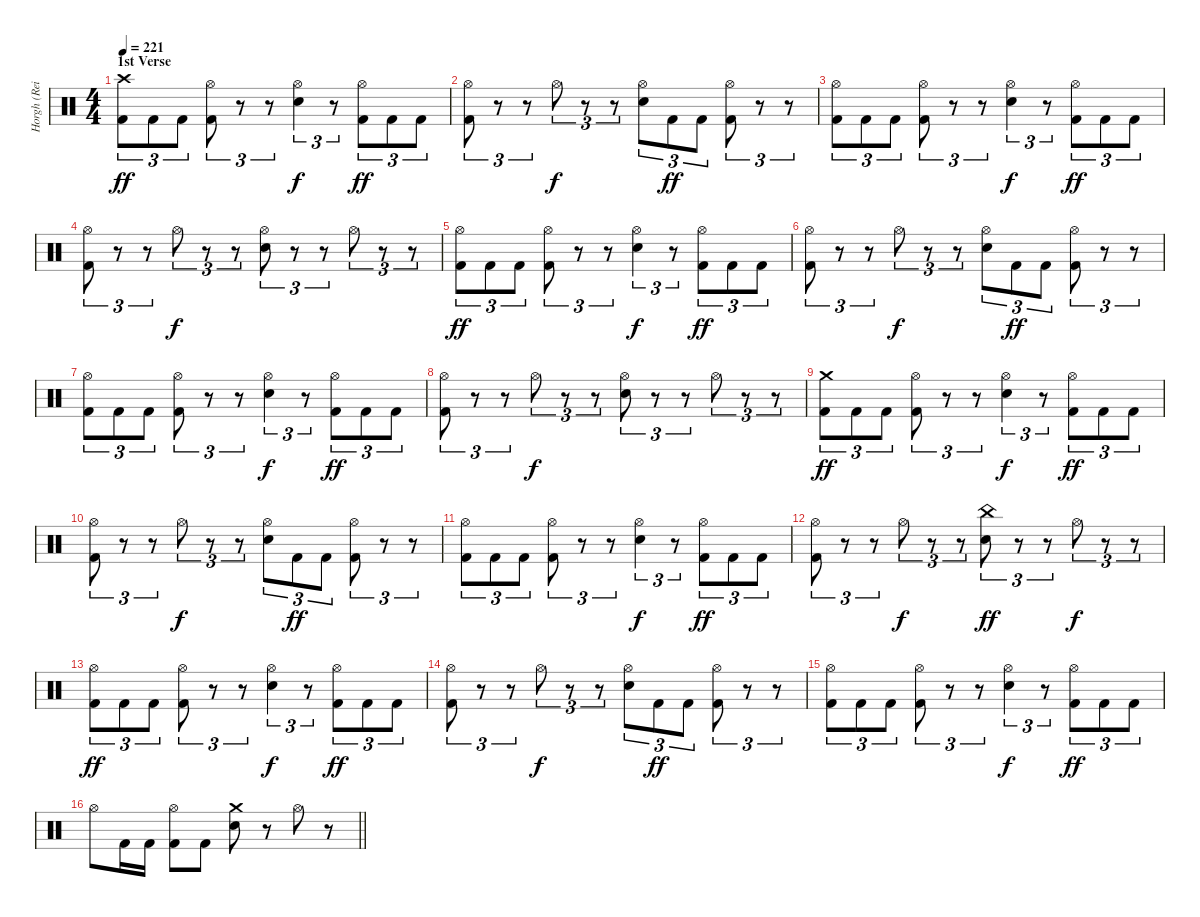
\track ("Horgh (Reidar Horghagen)" "Horgh (Rei") {instrument percussion}
\staff {score}
\articulation defaults
\ts (4 4)
\section ("" "1st Verse")
\tempo 221
\clef neutral
\ks c
("Crash high (hit)" "Kick (hit) 2").8{tu (3 2) dy ff} "Kick (hit) 2".8{tu (3 2)} "Kick (hit) 2".8{tu (3 2)} ("Hi-Hat (open)" "Kick (hit) 2").8{tu (3 2)} r.8{tu (3 2)} r.8{tu (3 2)} ("Hi-Hat (open)" "Snare (hit) 2").4{tu (3 2) dy f} r.8{tu (3 2)} ("Hi-Hat (open)" "Kick (hit) 2").8{tu (3 2) dy ff} "Kick (hit) 2".8{tu (3 2)} "Kick (hit) 2".8{tu (3 2)} |
("Hi-Hat (open)" "Kick (hit) 2").8{tu (3 2)} r.8{tu (3 2)} r.8{tu (3 2)} "Hi-Hat (open)".8{tu (3 2) dy f} r.8{tu (3 2)} r.8{tu (3 2)} ("Hi-Hat (open)" "Snare (hit) 2").8{tu (3 2)} "Kick (hit) 2".8{tu (3 2) dy ff} "Kick (hit) 2".8{tu (3 2)} ("Hi-Hat (open)" "Kick (hit) 2").8{tu (3 2)} r.8{tu (3 2)} r.8{tu (3 2)} |
("Hi-Hat (open)" "Kick (hit) 2").8{tu (3 2)} "Kick (hit) 2".8{tu (3 2)} "Kick (hit) 2".8{tu (3 2)} ("Hi-Hat (open)" "Kick (hit) 2").8{tu (3 2)} r.8{tu (3 2)} r.8{tu (3 2)} ("Hi-Hat (open)" "Snare (hit) 2").4{tu (3 2) dy f} r.8{tu (3 2)} ("Hi-Hat (open)" "Kick (hit) 2").8{tu (3 2) dy ff} "Kick (hit) 2".8{tu (3 2)} "Kick (hit) 2".8{tu (3 2)} |
("Hi-Hat (open)" "Kick (hit) 2").8{tu (3 2)} r.8{tu (3 2)} r.8{tu (3 2)} "Hi-Hat (open)".8{tu (3 2) dy f} r.8{tu (3 2)} r.8{tu (3 2)} ("Hi-Hat (open)" "Snare (hit) 2").8{tu (3 2)} r.8{tu (3 2)} r.8{tu (3 2)} "Hi-Hat (open)".8{tu (3 2)} r.8{tu (3 2)} r.8{tu (3 2)} |
("Hi-Hat (open)" "Kick (hit) 2").8{tu (3 2) dy ff} "Kick (hit) 2".8{tu (3 2)} "Kick (hit) 2".8{tu (3 2)} ("Hi-Hat (open)" "Kick (hit) 2").8{tu (3 2)} r.8{tu (3 2)} r.8{tu (3 2)} ("Hi-Hat (open)" "Snare (hit) 2").4{tu (3 2) dy f} r.8{tu (3 2)} ("Hi-Hat (open)" "Kick (hit) 2").8{tu (3 2) dy ff} "Kick (hit) 2".8{tu (3 2)} "Kick (hit) 2".8{tu (3 2)} |
("Hi-Hat (open)" "Kick (hit) 2").8{tu (3 2)} r.8{tu (3 2)} r.8{tu (3 2)} "Hi-Hat (open)".8{tu (3 2) dy f} r.8{tu (3 2)} r.8{tu (3 2)} ("Hi-Hat (open)" "Snare (hit) 2").8{tu (3 2)} "Kick (hit) 2".8{tu (3 2) dy ff} "Kick (hit) 2".8{tu (3 2)} ("Hi-Hat (open)" "Kick (hit) 2").8{tu (3 2)} r.8{tu (3 2)} r.8{tu (3 2)} |
("Hi-Hat (open)" "Kick (hit) 2").8{tu (3 2)} "Kick (hit) 2".8{tu (3 2)} "Kick (hit) 2".8{tu (3 2)} ("Hi-Hat (open)" "Kick (hit) 2").8{tu (3 2)} r.8{tu (3 2)} r.8{tu (3 2)} ("Hi-Hat (open)" "Snare (hit) 2").4{tu (3 2) dy f} r.8{tu (3 2)} ("Hi-Hat (open)" "Kick (hit) 2").8{tu (3 2) dy ff} "Kick (hit) 2".8{tu (3 2)} "Kick (hit) 2".8{tu (3 2)} |
("Hi-Hat (open)" "Kick (hit) 2").8{tu (3 2)} r.8{tu (3 2)} r.8{tu (3 2)} "Hi-Hat (open)".8{tu (3 2) dy f} r.8{tu (3 2)} r.8{tu (3 2)} ("Hi-Hat (open)" "Snare (hit) 2").8{tu (3 2)} r.8{tu (3 2)} r.8{tu (3 2)} "Hi-Hat (open)".8{tu (3 2)} r.8{tu (3 2)} r.8{tu (3 2)} |
("Crash medium (hit)" "Kick (hit) 2").8{tu (3 2) dy ff} "Kick (hit) 2".8{tu (3 2)} "Kick (hit) 2".8{tu (3 2)} ("Hi-Hat (open)" "Kick (hit) 2").8{tu (3 2)} r.8{tu (3 2)} r.8{tu (3 2)} ("Hi-Hat (open)" "Snare (hit) 2").4{tu (3 2) dy f} r.8{tu (3 2)} ("Hi-Hat (open)" "Kick (hit) 2").8{tu (3 2) dy ff} "Kick (hit) 2".8{tu (3 2)} "Kick (hit) 2".8{tu (3 2)} |
("Hi-Hat (open)" "Kick (hit) 2").8{tu (3 2)} r.8{tu (3 2)} r.8{tu (3 2)} "Hi-Hat (open)".8{tu (3 2) dy f} r.8{tu (3 2)} r.8{tu (3 2)} ("Hi-Hat (open)" "Snare (hit) 2").8{tu (3 2)} "Kick (hit) 2".8{tu (3 2) dy ff} "Kick (hit) 2".8{tu (3 2)} ("Hi-Hat (open)" "Kick (hit) 2").8{tu (3 2)} r.8{tu (3 2)} r.8{tu (3 2)} |
("Hi-Hat (open)" "Kick (hit) 2").8{tu (3 2)} "Kick (hit) 2".8{tu (3 2)} "Kick (hit) 2".8{tu (3 2)} ("Hi-Hat (open)" "Kick (hit) 2").8{tu (3 2)} r.8{tu (3 2)} r.8{tu (3 2)} ("Hi-Hat (open)" "Snare (hit) 2").4{tu (3 2) dy f} r.8{tu (3 2)} ("Hi-Hat (open)" "Kick (hit) 2").8{tu (3 2) dy ff} "Kick (hit) 2".8{tu (3 2)} "Kick (hit) 2".8{tu (3 2)} |
("Hi-Hat (open)" "Kick (hit) 2").8{tu (3 2)} r.8{tu (3 2)} r.8{tu (3 2)} "Hi-Hat (open)".8{tu (3 2) dy f} r.8{tu (3 2)} r.8{tu (3 2)} ("China (hit)" "Snare (hit) 2").8{tu (3 2) dy ff} r.8{tu (3 2)} r.8{tu (3 2)} "Hi-Hat (open)".8{tu (3 2) dy f} r.8{tu (3 2)} r.8{tu (3 2)} |
("Hi-Hat (open)" "Kick (hit) 2").8{tu (3 2) dy ff} "Kick (hit) 2".8{tu (3 2)} "Kick (hit) 2".8{tu (3 2)} ("Hi-Hat (open)" "Kick (hit) 2").8{tu (3 2)} r.8{tu (3 2)} r.8{tu (3 2)} ("Hi-Hat (open)" "Snare (hit) 2").4{tu (3 2) dy f} r.8{tu (3 2)} ("Hi-Hat (open)" "Kick (hit) 2").8{tu (3 2) dy ff} "Kick (hit) 2".8{tu (3 2)} "Kick (hit) 2".8{tu (3 2)} |
("Hi-Hat (open)" "Kick (hit) 2").8{tu (3 2)} r.8{tu (3 2)} r.8{tu (3 2)} "Hi-Hat (open)".8{tu (3 2) dy f} r.8{tu (3 2)} r.8{tu (3 2)} ("Hi-Hat (open)" "Snare (hit) 2").8{tu (3 2)} "Kick (hit) 2".8{tu (3 2) dy ff} "Kick (hit) 2".8{tu (3 2)} ("Hi-Hat (open)" "Kick (hit) 2").8{tu (3 2)} r.8{tu (3 2)} r.8{tu (3 2)} |
("Hi-Hat (open)" "Kick (hit) 2").8{tu (3 2)} "Kick (hit) 2".8{tu (3 2)} "Kick (hit) 2".8{tu (3 2)} ("Hi-Hat (open)" "Kick (hit) 2").8{tu (3 2)} r.8{tu (3 2)} r.8{tu (3 2)} ("Hi-Hat (open)" "Snare (hit) 2").4{tu (3 2) dy f} r.8{tu (3 2)} ("Hi-Hat (open)" "Kick (hit) 2").8{tu (3 2) dy ff} "Kick (hit) 2".8{tu (3 2)} "Kick (hit) 2".8{tu (3 2)} |
\barLineRight lightlight "Hi-Hat (open)".8 "Kick (hit) 2".16 "Kick (hit) 2".16
("Hi-Hat (open)" "Kick (hit) 2").8 "Kick (hit) 2".8 ("Crash medium (hit)" "Snare (hit) 2").8 r.8 "Hi-Hat (open)".8 r.8
